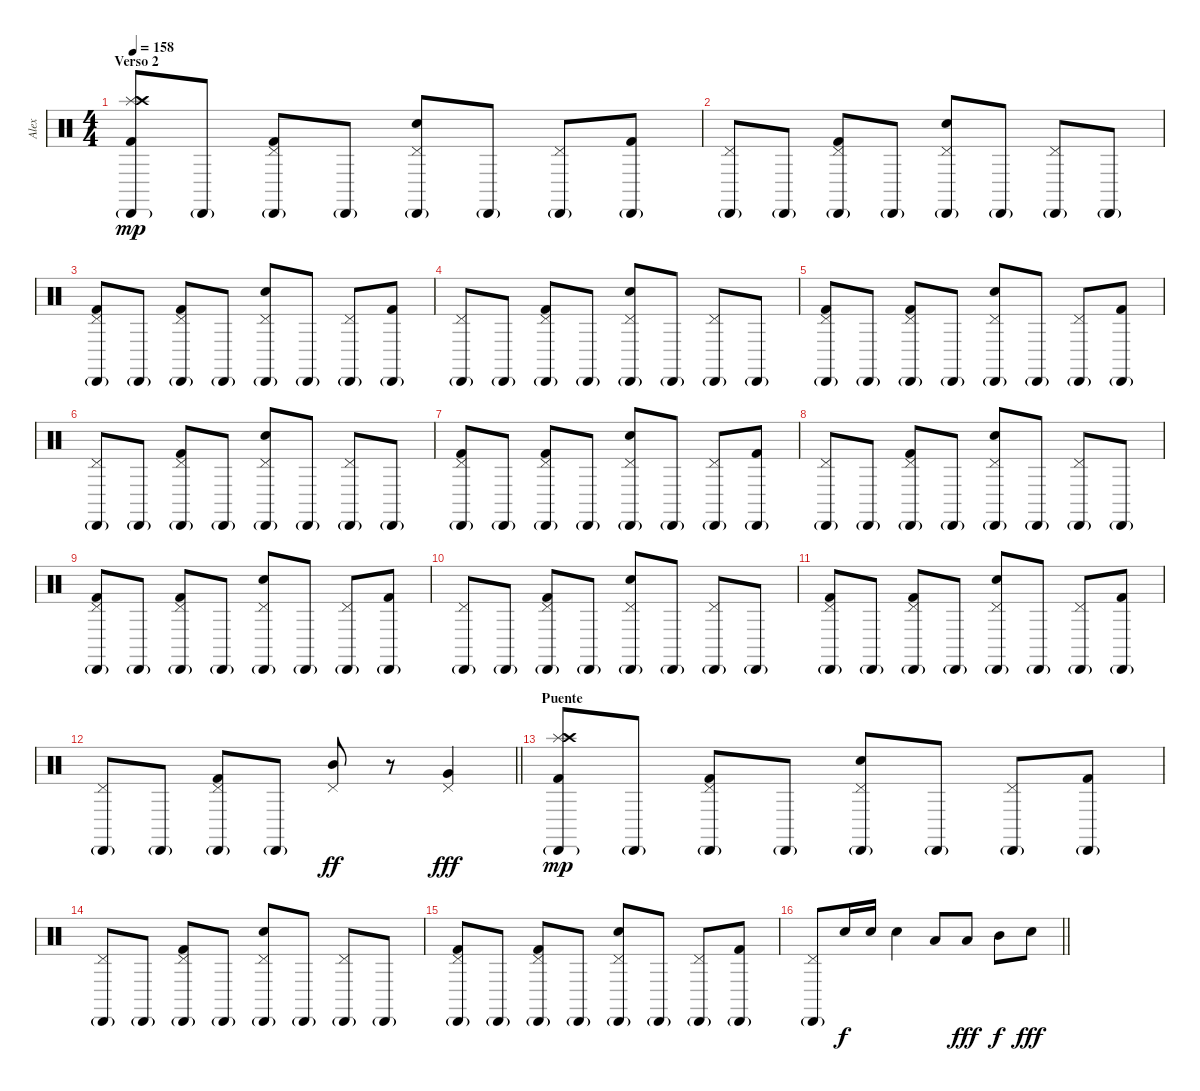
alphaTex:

\track ("Alex" "Alex") {instrument percussion}
\staff {score}
\articulation defaults
\ts (4 4)
\section ("" "Verso 2")
\tempo 158
\clef neutral
\ks c
("Splash (hit)" "Kick (hit) 2" "Crash high (hit)" "Cabasa (hit)"{g}).8{dy mp} "Cabasa (hit)"{g}.8 ("Pedal Hi-Hat (hit)" "Kick (hit) 2" "Cabasa (hit)"{g}).8 "Cabasa (hit)"{g}.8 ("Pedal Hi-Hat (hit)" "Electric Snare (hit)" "Cabasa (hit)"{g}).8 "Cabasa (hit)"{g}.8 ("Pedal Hi-Hat (hit)" "Cabasa (hit)"{g}).8 ("Kick (hit) 2" "Cabasa (hit)"{g}).8 |
("Pedal Hi-Hat (hit)" "Cabasa (hit)"{g}).8 "Cabasa (hit)"{g}.8 ("Pedal Hi-Hat (hit)" "Kick (hit) 2" "Cabasa (hit)"{g}).8 "Cabasa (hit)"{g}.8 ("Pedal Hi-Hat (hit)" "Electric Snare (hit)" "Cabasa (hit)"{g}).8 "Cabasa (hit)"{g}.8 ("Pedal Hi-Hat (hit)" "Cabasa (hit)"{g}).8 "Cabasa (hit)"{g}.8 |
("Pedal Hi-Hat (hit)" "Kick (hit) 2" "Cabasa (hit)"{g}).8 "Cabasa (hit)"{g}.8 ("Pedal Hi-Hat (hit)" "Kick (hit) 2" "Cabasa (hit)"{g}).8 "Cabasa (hit)"{g}.8 ("Pedal Hi-Hat (hit)" "Electric Snare (hit)" "Cabasa (hit)"{g}).8 "Cabasa (hit)"{g}.8 ("Pedal Hi-Hat (hit)" "Cabasa (hit)"{g}).8 ("Kick (hit) 2" "Cabasa (hit)"{g}).8 |
("Pedal Hi-Hat (hit)" "Cabasa (hit)"{g}).8 "Cabasa (hit)"{g}.8 ("Pedal Hi-Hat (hit)" "Kick (hit) 2" "Cabasa (hit)"{g}).8 "Cabasa (hit)"{g}.8 ("Pedal Hi-Hat (hit)" "Electric Snare (hit)" "Cabasa (hit)"{g}).8 "Cabasa (hit)"{g}.8 ("Pedal Hi-Hat (hit)" "Cabasa (hit)"{g}).8 "Cabasa (hit)"{g}.8 |
("Pedal Hi-Hat (hit)" "Kick (hit) 2" "Cabasa (hit)"{g}).8 "Cabasa (hit)"{g}.8 ("Pedal Hi-Hat (hit)" "Kick (hit) 2" "Cabasa (hit)"{g}).8 "Cabasa (hit)"{g}.8 ("Pedal Hi-Hat (hit)" "Electric Snare (hit)" "Cabasa (hit)"{g}).8 "Cabasa (hit)"{g}.8 ("Pedal Hi-Hat (hit)" "Cabasa (hit)"{g}).8 ("Kick (hit) 2" "Cabasa (hit)"{g}).8 |
("Pedal Hi-Hat (hit)" "Cabasa (hit)"{g}).8 "Cabasa (hit)"{g}.8 ("Pedal Hi-Hat (hit)" "Kick (hit) 2" "Cabasa (hit)"{g}).8 "Cabasa (hit)"{g}.8 ("Pedal Hi-Hat (hit)" "Electric Snare (hit)" "Cabasa (hit)"{g}).8 "Cabasa (hit)"{g}.8 ("Pedal Hi-Hat (hit)" "Cabasa (hit)"{g}).8 "Cabasa (hit)"{g}.8 |
("Pedal Hi-Hat (hit)" "Kick (hit) 2" "Cabasa (hit)"{g}).8 "Cabasa (hit)"{g}.8 ("Pedal Hi-Hat (hit)" "Kick (hit) 2" "Cabasa (hit)"{g}).8 "Cabasa (hit)"{g}.8 ("Pedal Hi-Hat (hit)" "Electric Snare (hit)" "Cabasa (hit)"{g}).8 "Cabasa (hit)"{g}.8 ("Pedal Hi-Hat (hit)" "Cabasa (hit)"{g}).8 ("Kick (hit) 2" "Cabasa (hit)"{g}).8 |
("Pedal Hi-Hat (hit)" "Cabasa (hit)"{g}).8 "Cabasa (hit)"{g}.8 ("Pedal Hi-Hat (hit)" "Kick (hit) 2" "Cabasa (hit)"{g}).8 "Cabasa (hit)"{g}.8 ("Pedal Hi-Hat (hit)" "Electric Snare (hit)" "Cabasa (hit)"{g}).8 "Cabasa (hit)"{g}.8 ("Pedal Hi-Hat (hit)" "Cabasa (hit)"{g}).8 "Cabasa (hit)"{g}.8 |
("Pedal Hi-Hat (hit)" "Kick (hit) 2" "Cabasa (hit)"{g}).8 "Cabasa (hit)"{g}.8 ("Pedal Hi-Hat (hit)" "Kick (hit) 2" "Cabasa (hit)"{g}).8 "Cabasa (hit)"{g}.8 ("Pedal Hi-Hat (hit)" "Electric Snare (hit)" "Cabasa (hit)"{g}).8 "Cabasa (hit)"{g}.8 ("Pedal Hi-Hat (hit)" "Cabasa (hit)"{g}).8 ("Kick (hit) 2" "Cabasa (hit)"{g}).8 |
("Pedal Hi-Hat (hit)" "Cabasa (hit)"{g}).8 "Cabasa (hit)"{g}.8 ("Pedal Hi-Hat (hit)" "Kick (hit) 2" "Cabasa (hit)"{g}).8 "Cabasa (hit)"{g}.8 ("Pedal Hi-Hat (hit)" "Electric Snare (hit)" "Cabasa (hit)"{g}).8 "Cabasa (hit)"{g}.8 ("Pedal Hi-Hat (hit)" "Cabasa (hit)"{g}).8 "Cabasa (hit)"{g}.8 |
("Pedal Hi-Hat (hit)" "Kick (hit) 2" "Cabasa (hit)"{g}).8 "Cabasa (hit)"{g}.8 ("Pedal Hi-Hat (hit)" "Kick (hit) 2" "Cabasa (hit)"{g}).8 "Cabasa (hit)"{g}.8 ("Pedal Hi-Hat (hit)" "Electric Snare (hit)" "Cabasa (hit)"{g}).8 "Cabasa (hit)"{g}.8 ("Pedal Hi-Hat (hit)" "Cabasa (hit)"{g}).8 ("Kick (hit) 2" "Cabasa (hit)"{g}).8 |
\barLineRight lightlight
("Pedal Hi-Hat (hit)" "Cabasa (hit)"{g}).8 "Cabasa (hit)"{g}.8 ("Pedal Hi-Hat (hit)" "Kick (hit) 2" "Cabasa (hit)"{g}).8 "Cabasa (hit)"{g}.8 ("Pedal Hi-Hat (hit)" "Mid Tom (hit)").8{dy ff} r.8 ("Pedal Hi-Hat (hit)" "Very Low Tom (hit)").4{dy fff} |
\section ("" "Puente")
("Splash (hit)" "Kick (hit) 2" "Crash high (hit)" "Cabasa (hit)"{g}).8{dy mp} "Cabasa (hit)"{g}.8 ("Pedal Hi-Hat (hit)" "Kick (hit) 2" "Cabasa (hit)"{g}).8 "Cabasa (hit)"{g}.8 ("Pedal Hi-Hat (hit)" "Electric Snare (hit)" "Cabasa (hit)"{g}).8 "Cabasa (hit)"{g}.8 ("Pedal Hi-Hat (hit)" "Cabasa (hit)"{g}).8 ("Kick (hit) 2" "Cabasa (hit)"{g}).8 |
("Pedal Hi-Hat (hit)" "Cabasa (hit)"{g}).8 "Cabasa (hit)"{g}.8 ("Pedal Hi-Hat (hit)" "Kick (hit) 2" "Cabasa (hit)"{g}).8 "Cabasa (hit)"{g}.8 ("Pedal Hi-Hat (hit)" "Electric Snare (hit)" "Cabasa (hit)"{g}).8 "Cabasa (hit)"{g}.8 ("Pedal Hi-Hat (hit)" "Cabasa (hit)"{g}).8 "Cabasa (hit)"{g}.8 |
("Pedal Hi-Hat (hit)" "Kick (hit) 2" "Cabasa (hit)"{g}).8 "Cabasa (hit)"{g}.8 ("Pedal Hi-Hat (hit)" "Kick (hit) 2" "Cabasa (hit)"{g}).8 "Cabasa (hit)"{g}.8 ("Pedal Hi-Hat (hit)" "Electric Snare (hit)" "Cabasa (hit)"{g}).8 "Cabasa (hit)"{g}.8 ("Pedal Hi-Hat (hit)" "Cabasa (hit)"{g}).8 ("Kick (hit) 2" "Cabasa (hit)"{g}).8 |
\barLineRight lightlight
("Pedal Hi-Hat (hit)" "Cabasa (hit)"{g}).8 "Electric Snare (hit)".16{dy f} "Electric Snare (hit)".16 "Electric Snare (hit)".4 "Low Tom (hit)".8 "Low Tom (hit)".8{dy fff} "Mid Tom (hit)".8{dy f} "Electric Snare (hit)".8{dy fff}
